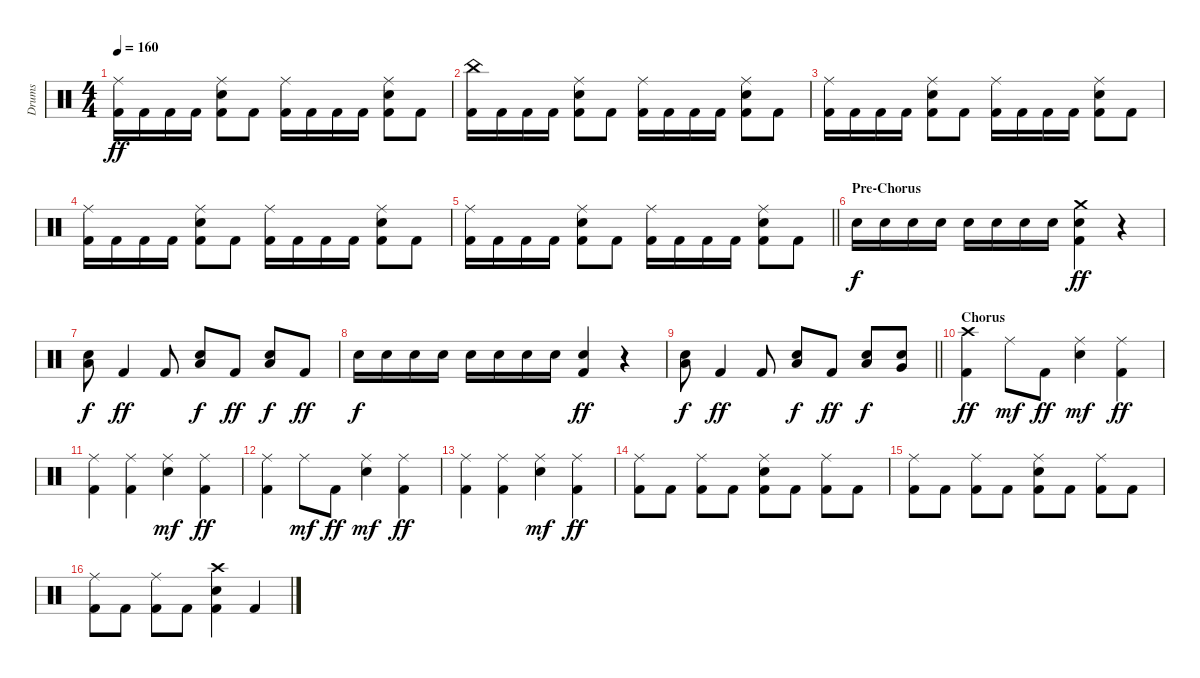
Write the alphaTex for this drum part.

\track ("Drums" "Drums") {instrument percussion}
\staff {score}
\articulation defaults
\ts (4 4)
\tempo 160
\clef neutral
\ks c
("Ride (middle)" "Kick (hit) 2").16{dy ff} "Kick (hit) 2".16 "Kick (hit) 2".16 "Kick (hit) 2".16 ("Ride (middle)" "Electric Snare (hit)" "Kick (hit) 2").8 "Kick (hit) 2".8 ("Ride (middle)" "Kick (hit) 2").16 "Kick (hit) 2".16 "Kick (hit) 2".16 "Kick (hit) 2".16 ("Ride (middle)" "Electric Snare (hit)" "Kick (hit) 2").8 "Kick (hit) 2".8 |
("China (hit)" "Kick (hit) 2").16 "Kick (hit) 2".16 "Kick (hit) 2".16 "Kick (hit) 2".16 ("Ride (middle)" "Electric Snare (hit)" "Kick (hit) 2").8 "Kick (hit) 2".8 ("Ride (middle)" "Kick (hit) 2").16 "Kick (hit) 2".16 "Kick (hit) 2".16 "Kick (hit) 2".16 ("Ride (middle)" "Electric Snare (hit)" "Kick (hit) 2").8 "Kick (hit) 2".8 |
("Ride (middle)" "Kick (hit) 2").16 "Kick (hit) 2".16 "Kick (hit) 2".16 "Kick (hit) 2".16 ("Ride (middle)" "Electric Snare (hit)" "Kick (hit) 2").8 "Kick (hit) 2".8 ("Ride (middle)" "Kick (hit) 2").16 "Kick (hit) 2".16 "Kick (hit) 2".16 "Kick (hit) 2".16 ("Ride (middle)" "Electric Snare (hit)" "Kick (hit) 2").8 "Kick (hit) 2".8 |
("Ride (middle)" "Kick (hit) 2").16 "Kick (hit) 2".16 "Kick (hit) 2".16 "Kick (hit) 2".16 ("Ride (middle)" "Electric Snare (hit)" "Kick (hit) 2").8 "Kick (hit) 2".8 ("Ride (middle)" "Kick (hit) 2").16 "Kick (hit) 2".16 "Kick (hit) 2".16 "Kick (hit) 2".16 ("Ride (middle)" "Electric Snare (hit)" "Kick (hit) 2").8 "Kick (hit) 2".8 |
\barLineRight lightlight
("Ride (middle)" "Kick (hit) 2").16 "Kick (hit) 2".16 "Kick (hit) 2".16 "Kick (hit) 2".16 ("Ride (middle)" "Electric Snare (hit)" "Kick (hit) 2").8 "Kick (hit) 2".8 ("Ride (middle)" "Kick (hit) 2").16 "Kick (hit) 2".16 "Kick (hit) 2".16 "Kick (hit) 2".16 ("Ride (middle)" "Electric Snare (hit)" "Kick (hit) 2").8 "Kick (hit) 2".8 |
\section ("" "Pre-Chorus")
"Electric Snare (hit)".16{dy f} "Electric Snare (hit)".16 "Electric Snare (hit)".16 "Electric Snare (hit)".16 "Electric Snare (hit)".16 "Electric Snare (hit)".16 "Electric Snare (hit)".16 "Electric Snare (hit)".16 ("Crash medium (hit)" "Electric Snare (hit)" "Kick (hit) 2").4{dy ff} r.4 |
("Low Tom (hit)" "Electric Snare (hit)").8{dy f} "Kick (hit) 2".4{dy ff} "Kick (hit) 2".8 ("Low Tom (hit)" "Electric Snare (hit)").8{dy f} "Kick (hit) 2".8{dy ff} ("Low Tom (hit)" "Electric Snare (hit)").8{dy f} "Kick (hit) 2".8{dy ff} |
"Electric Snare (hit)".16{dy f} "Electric Snare (hit)".16 "Electric Snare (hit)".16 "Electric Snare (hit)".16 "Electric Snare (hit)".16 "Electric Snare (hit)".16 "Electric Snare (hit)".16 "Electric Snare (hit)".16 ("Electric Snare (hit)" "Kick (hit) 2").4{dy ff} r.4 |
\barLineRight lightlight
("Low Tom (hit)" "Electric Snare (hit)").8{dy f} "Kick (hit) 2".4{dy ff} "Kick (hit) 2".8 ("Low Tom (hit)" "Electric Snare (hit)").8{dy f} "Kick (hit) 2".8{dy ff} ("Low Tom (hit)" "Electric Snare (hit)").8{dy f} ("Very Low Tom (hit)" "Electric Snare (hit)").8 |
\section ("" "Chorus")
("Crash high (hit)" "Kick (hit) 2").4{dy ff} "Ride (middle)".8{dy mf} "Kick (hit) 2".8{dy ff} ("Ride (middle)" "Electric Snare (hit)").4{dy mf} ("Ride (middle)" "Kick (hit) 2").4{dy ff} |
("Ride (middle)" "Kick (hit) 2").4 ("Ride (middle)" "Kick (hit) 2").4 ("Ride (middle)" "Electric Snare (hit)").4{dy mf} ("Ride (middle)" "Kick (hit) 2").4{dy ff} |
("Ride (middle)" "Kick (hit) 2").4 "Ride (middle)".8{dy mf} "Kick (hit) 2".8{dy ff} ("Ride (middle)" "Electric Snare (hit)").4{dy mf} ("Ride (middle)" "Kick (hit) 2").4{dy ff} |
("Ride (middle)" "Kick (hit) 2").4 ("Ride (middle)" "Kick (hit) 2").4 ("Ride (middle)" "Electric Snare (hit)").4{dy mf} ("Ride (middle)" "Kick (hit) 2").4{dy ff} |
("Ride (middle)" "Kick (hit) 2").8 "Kick (hit) 2".8 ("Ride (middle)" "Kick (hit) 2").8 "Kick (hit) 2".8 ("Ride (middle)" "Electric Snare (hit)" "Kick (hit) 2").8 "Kick (hit) 2".8 ("Ride (middle)" "Kick (hit) 2").8 "Kick (hit) 2".8 |
("Ride (middle)" "Kick (hit) 2").8 "Kick (hit) 2".8 ("Ride (middle)" "Kick (hit) 2").8 "Kick (hit) 2".8 ("Ride (middle)" "Electric Snare (hit)" "Kick (hit) 2").8 "Kick (hit) 2".8 ("Ride (middle)" "Kick (hit) 2").8 "Kick (hit) 2".8 |
("Ride (middle)" "Kick (hit) 2").8 "Kick (hit) 2".8 ("Ride (middle)" "Kick (hit) 2").8 "Kick (hit) 2".8 ("Crash high (hit)" "Electric Snare (hit)" "Kick (hit) 2").4 "Kick (hit) 2".4
